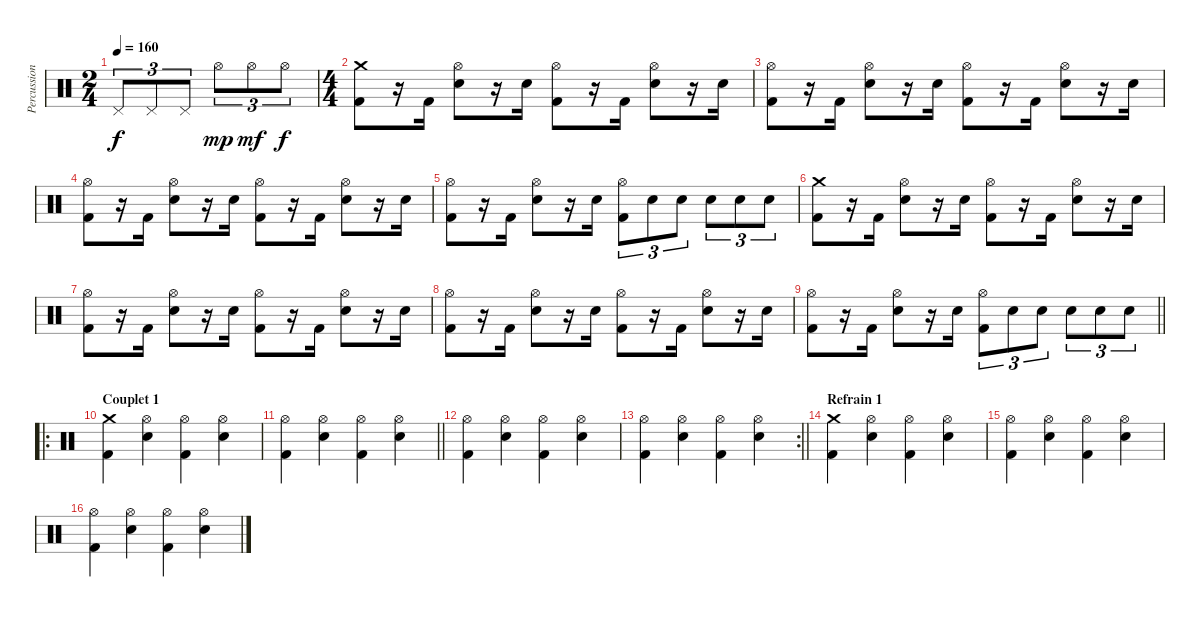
\track ("Percussions" "Percussion") {instrument percussion}
\staff
\articulation defaults
\ts (2 4)
\tempo 160
\clef neutral
\ks c "Pedal Hi-Hat (hit)".8{tu (3 2) dy f} "Pedal Hi-Hat (hit)".8{tu (3 2)} "Pedal Hi-Hat (hit)".8{tu (3 2)} "Hi-Hat (open)".8{tu (3 2) dy mp} "Hi-Hat (open)".8{tu (3 2) dy mf} "Hi-Hat (open)".8{tu (3 2) dy f}
|
\ts (4 4)
("Crash medium (hit)" "Kick (hit) 2").8 r.16 "Kick (hit) 2".16 ("Hi-Hat (open)" "Electric Snare (hit)").8 r.16 "Electric Snare (hit)".16 ("Hi-Hat (open)" "Kick (hit) 2").8 r.16 "Kick (hit) 2".16 ("Hi-Hat (open)" "Electric Snare (hit)").8 r.16 "Electric Snare (hit)".16 |
("Hi-Hat (open)" "Kick (hit) 2").8 r.16 "Kick (hit) 2".16 ("Hi-Hat (open)" "Electric Snare (hit)").8 r.16 "Electric Snare (hit)".16 ("Hi-Hat (open)" "Kick (hit) 2").8 r.16 "Kick (hit) 2".16 ("Hi-Hat (open)" "Electric Snare (hit)").8 r.16 "Electric Snare (hit)".16 |
("Hi-Hat (open)" "Kick (hit) 2").8 r.16 "Kick (hit) 2".16 ("Hi-Hat (open)" "Electric Snare (hit)").8 r.16 "Electric Snare (hit)".16 ("Hi-Hat (open)" "Kick (hit) 2").8 r.16 "Kick (hit) 2".16 ("Hi-Hat (open)" "Electric Snare (hit)").8 r.16 "Electric Snare (hit)".16 |
("Hi-Hat (open)" "Kick (hit) 2").8 r.16 "Kick (hit) 2".16 ("Hi-Hat (open)" "Electric Snare (hit)").8 r.16 "Electric Snare (hit)".16 ("Hi-Hat (open)" "Kick (hit) 2").8{tu (3 2)} "Electric Snare (hit)".8{tu (3 2)} "Electric Snare (hit)".8{tu (3 2)} "Electric Snare (hit)".8{tu (3 2)} "Electric Snare (hit)".8{tu (3 2)} "Electric Snare (hit)".8{tu (3 2)} |
("Crash medium (hit)" "Kick (hit) 2").8 r.16 "Kick (hit) 2".16 ("Hi-Hat (open)" "Electric Snare (hit)").8 r.16 "Electric Snare (hit)".16 ("Hi-Hat (open)" "Kick (hit) 2").8 r.16 "Kick (hit) 2".16 ("Hi-Hat (open)" "Electric Snare (hit)").8 r.16 "Electric Snare (hit)".16 |
("Hi-Hat (open)" "Kick (hit) 2").8 r.16 "Kick (hit) 2".16 ("Hi-Hat (open)" "Electric Snare (hit)").8 r.16 "Electric Snare (hit)".16 ("Hi-Hat (open)" "Kick (hit) 2").8 r.16 "Kick (hit) 2".16 ("Hi-Hat (open)" "Electric Snare (hit)").8 r.16 "Electric Snare (hit)".16 |
("Hi-Hat (open)" "Kick (hit) 2").8 r.16 "Kick (hit) 2".16 ("Hi-Hat (open)" "Electric Snare (hit)").8 r.16 "Electric Snare (hit)".16 ("Hi-Hat (open)" "Kick (hit) 2").8 r.16 "Kick (hit) 2".16 ("Hi-Hat (open)" "Electric Snare (hit)").8 r.16 "Electric Snare (hit)".16 |
\barLineRight lightlight
("Hi-Hat (open)" "Kick (hit) 2").8 r.16 "Kick (hit) 2".16 ("Hi-Hat (open)" "Electric Snare (hit)").8 r.16 "Electric Snare (hit)".16 ("Hi-Hat (open)" "Kick (hit) 2").8{tu (3 2)} "Electric Snare (hit)".8{tu (3 2)} "Electric Snare (hit)".8{tu (3 2)} "Electric Snare (hit)".8{tu (3 2)} "Electric Snare (hit)".8{tu (3 2)} "Electric Snare (hit)".8{tu (3 2)} |
\ro
\section ("" "Couplet 1")
("Crash medium (hit)" "Kick (hit) 2").4 ("Hi-Hat (open)" "Electric Snare (hit)").4 ("Hi-Hat (open)" "Kick (hit) 2").4 ("Hi-Hat (open)" "Electric Snare (hit)").4 |
\barLineRight lightlight
("Hi-Hat (open)" "Kick (hit) 2").4 ("Hi-Hat (open)" "Electric Snare (hit)").4 ("Hi-Hat (open)" "Kick (hit) 2").4 ("Hi-Hat (open)" "Electric Snare (hit)").4 |
("Hi-Hat (open)" "Kick (hit) 2").4 ("Hi-Hat (open)" "Electric Snare (hit)").4 ("Hi-Hat (open)" "Kick (hit) 2").4 ("Hi-Hat (open)" "Electric Snare (hit)").4 |
\rc 2
\barLineRight lightlight
("Hi-Hat (open)" "Kick (hit) 2").4 ("Hi-Hat (open)" "Electric Snare (hit)").4 ("Hi-Hat (open)" "Kick (hit) 2").4 ("Hi-Hat (open)" "Electric Snare (hit)").4 |
\section ("" "Refrain 1")
("Crash medium (hit)" "Kick (hit) 2").4 ("Hi-Hat (open)" "Electric Snare (hit)").4 ("Hi-Hat (open)" "Kick (hit) 2").4 ("Hi-Hat (open)" "Electric Snare (hit)").4 |
("Hi-Hat (open)" "Kick (hit) 2").4 ("Hi-Hat (open)" "Electric Snare (hit)").4 ("Hi-Hat (open)" "Kick (hit) 2").4 ("Hi-Hat (open)" "Electric Snare (hit)").4 |
("Hi-Hat (open)" "Kick (hit) 2").4 ("Hi-Hat (open)" "Electric Snare (hit)").4 ("Hi-Hat (open)" "Kick (hit) 2").4 ("Hi-Hat (open)" "Electric Snare (hit)").4
